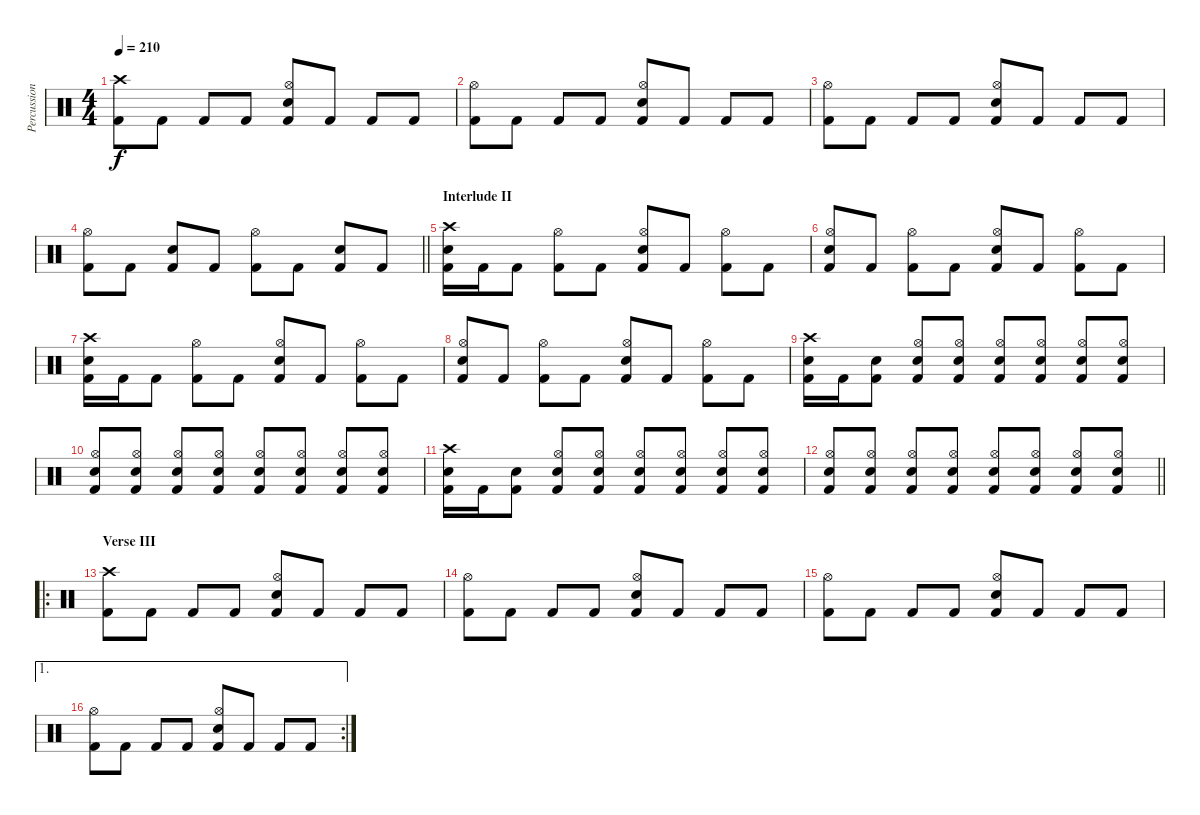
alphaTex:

\track ("Percussion" "Percussion") {instrument percussion}
\staff {score}
\articulation defaults
\ts (4 4)
\tempo 210
\clef neutral
\ks c
("Crash high (hit)" "Kick (hit) 2").8{dy f} "Kick (hit) 2".8 "Kick (hit) 2".8 "Kick (hit) 2".8 ("Hi-Hat (open)" "Snare (hit) 2" "Kick (hit) 2").8 "Kick (hit) 2".8 "Kick (hit) 2".8 "Kick (hit) 2".8 |
("Hi-Hat (open)" "Kick (hit) 2").8 "Kick (hit) 2".8 "Kick (hit) 2".8 "Kick (hit) 2".8 ("Hi-Hat (open)" "Snare (hit) 2" "Kick (hit) 2").8 "Kick (hit) 2".8 "Kick (hit) 2".8 "Kick (hit) 2".8 |
("Hi-Hat (open)" "Kick (hit) 2").8 "Kick (hit) 2".8 "Kick (hit) 2".8 "Kick (hit) 2".8 ("Hi-Hat (open)" "Snare (hit) 2" "Kick (hit) 2").8 "Kick (hit) 2".8 "Kick (hit) 2".8 "Kick (hit) 2".8 |
\barLineRight lightlight
("Hi-Hat (open)" "Kick (hit) 2").8 "Kick (hit) 2".8 ("Snare (hit) 2" "Kick (hit) 2").8 "Kick (hit) 2".8 ("Hi-Hat (open)" "Kick (hit) 2").8 "Kick (hit) 2".8 ("Snare (hit) 2" "Kick (hit) 2").8 "Kick (hit) 2".8 |
\section ("" "Interlude II")
("Crash high (hit)" "Snare (hit) 2" "Kick (hit) 2").16 "Kick (hit) 2".16 "Kick (hit) 2".8 ("Hi-Hat (open)" "Kick (hit) 2").8 "Kick (hit) 2".8 ("Hi-Hat (open)" "Snare (hit) 2" "Kick (hit) 2").8 "Kick (hit) 2".8 ("Hi-Hat (open)" "Kick (hit) 2").8 "Kick (hit) 2".8 |
("Hi-Hat (open)" "Snare (hit) 2" "Kick (hit) 2").8 "Kick (hit) 2".8 ("Hi-Hat (open)" "Kick (hit) 2").8 "Kick (hit) 2".8 ("Hi-Hat (open)" "Snare (hit) 2" "Kick (hit) 2").8 "Kick (hit) 2".8 ("Hi-Hat (open)" "Kick (hit) 2").8 "Kick (hit) 2".8 |
("Crash high (hit)" "Snare (hit) 2" "Kick (hit) 2").16 "Kick (hit) 2".16 "Kick (hit) 2".8 ("Hi-Hat (open)" "Kick (hit) 2").8 "Kick (hit) 2".8 ("Hi-Hat (open)" "Snare (hit) 2" "Kick (hit) 2").8 "Kick (hit) 2".8 ("Hi-Hat (open)" "Kick (hit) 2").8 "Kick (hit) 2".8 |
("Hi-Hat (open)" "Snare (hit) 2" "Kick (hit) 2").8 "Kick (hit) 2".8 ("Hi-Hat (open)" "Kick (hit) 2").8 "Kick (hit) 2".8 ("Hi-Hat (open)" "Snare (hit) 2" "Kick (hit) 2").8 "Kick (hit) 2".8 ("Hi-Hat (open)" "Kick (hit) 2").8 "Kick (hit) 2".8 |
("Crash high (hit)" "Snare (hit) 2" "Kick (hit) 2").16 "Kick (hit) 2".16 ("Snare (hit) 2" "Kick (hit) 2").8 ("Hi-Hat (open)" "Snare (hit) 2" "Kick (hit) 2").8 ("Hi-Hat (open)" "Snare (hit) 2" "Kick (hit) 2").8 ("Hi-Hat (open)" "Snare (hit) 2" "Kick (hit) 2").8 ("Hi-Hat (open)" "Snare (hit) 2" "Kick (hit) 2").8 ("Hi-Hat (open)" "Snare (hit) 2" "Kick (hit) 2").8 ("Hi-Hat (open)" "Snare (hit) 2" "Kick (hit) 2").8 |
("Hi-Hat (open)" "Snare (hit) 2" "Kick (hit) 2").8 ("Hi-Hat (open)" "Snare (hit) 2" "Kick (hit) 2").8 ("Hi-Hat (open)" "Snare (hit) 2" "Kick (hit) 2").8 ("Hi-Hat (open)" "Snare (hit) 2" "Kick (hit) 2").8 ("Hi-Hat (open)" "Snare (hit) 2" "Kick (hit) 2").8 ("Hi-Hat (open)" "Snare (hit) 2" "Kick (hit) 2").8 ("Hi-Hat (open)" "Snare (hit) 2" "Kick (hit) 2").8 ("Hi-Hat (open)" "Snare (hit) 2" "Kick (hit) 2").8 |
("Crash high (hit)" "Snare (hit) 2" "Kick (hit) 2").16 "Kick (hit) 2".16 ("Snare (hit) 2" "Kick (hit) 2").8 ("Hi-Hat (open)" "Snare (hit) 2" "Kick (hit) 2").8 ("Hi-Hat (open)" "Snare (hit) 2" "Kick (hit) 2").8 ("Hi-Hat (open)" "Snare (hit) 2" "Kick (hit) 2").8 ("Hi-Hat (open)" "Snare (hit) 2" "Kick (hit) 2").8 ("Hi-Hat (open)" "Snare (hit) 2" "Kick (hit) 2").8 ("Hi-Hat (open)" "Snare (hit) 2" "Kick (hit) 2").8 |
\barLineRight lightlight
("Hi-Hat (open)" "Snare (hit) 2" "Kick (hit) 2").8 ("Hi-Hat (open)" "Snare (hit) 2" "Kick (hit) 2").8 ("Hi-Hat (open)" "Snare (hit) 2" "Kick (hit) 2").8 ("Hi-Hat (open)" "Snare (hit) 2" "Kick (hit) 2").8 ("Hi-Hat (open)" "Snare (hit) 2" "Kick (hit) 2").8 ("Hi-Hat (open)" "Snare (hit) 2" "Kick (hit) 2").8 ("Hi-Hat (open)" "Snare (hit) 2" "Kick (hit) 2").8 ("Hi-Hat (open)" "Snare (hit) 2" "Kick (hit) 2").8 |
\ro
\section ("" "Verse III")
("Crash high (hit)" "Kick (hit) 2").8 "Kick (hit) 2".8 "Kick (hit) 2".8 "Kick (hit) 2".8 ("Hi-Hat (open)" "Snare (hit) 2" "Kick (hit) 2").8 "Kick (hit) 2".8 "Kick (hit) 2".8 "Kick (hit) 2".8 |
("Hi-Hat (open)" "Kick (hit) 2").8 "Kick (hit) 2".8 "Kick (hit) 2".8 "Kick (hit) 2".8 ("Hi-Hat (open)" "Snare (hit) 2" "Kick (hit) 2").8 "Kick (hit) 2".8 "Kick (hit) 2".8 "Kick (hit) 2".8 |
("Hi-Hat (open)" "Kick (hit) 2").8 "Kick (hit) 2".8 "Kick (hit) 2".8 "Kick (hit) 2".8 ("Hi-Hat (open)" "Snare (hit) 2" "Kick (hit) 2").8 "Kick (hit) 2".8 "Kick (hit) 2".8 "Kick (hit) 2".8 |
\ae 1
\rc 2
("Hi-Hat (open)" "Kick (hit) 2").8 "Kick (hit) 2".8 "Kick (hit) 2".8 "Kick (hit) 2".8 ("Hi-Hat (open)" "Snare (hit) 2" "Kick (hit) 2").8 "Kick (hit) 2".8 "Kick (hit) 2".8 "Kick (hit) 2".8
